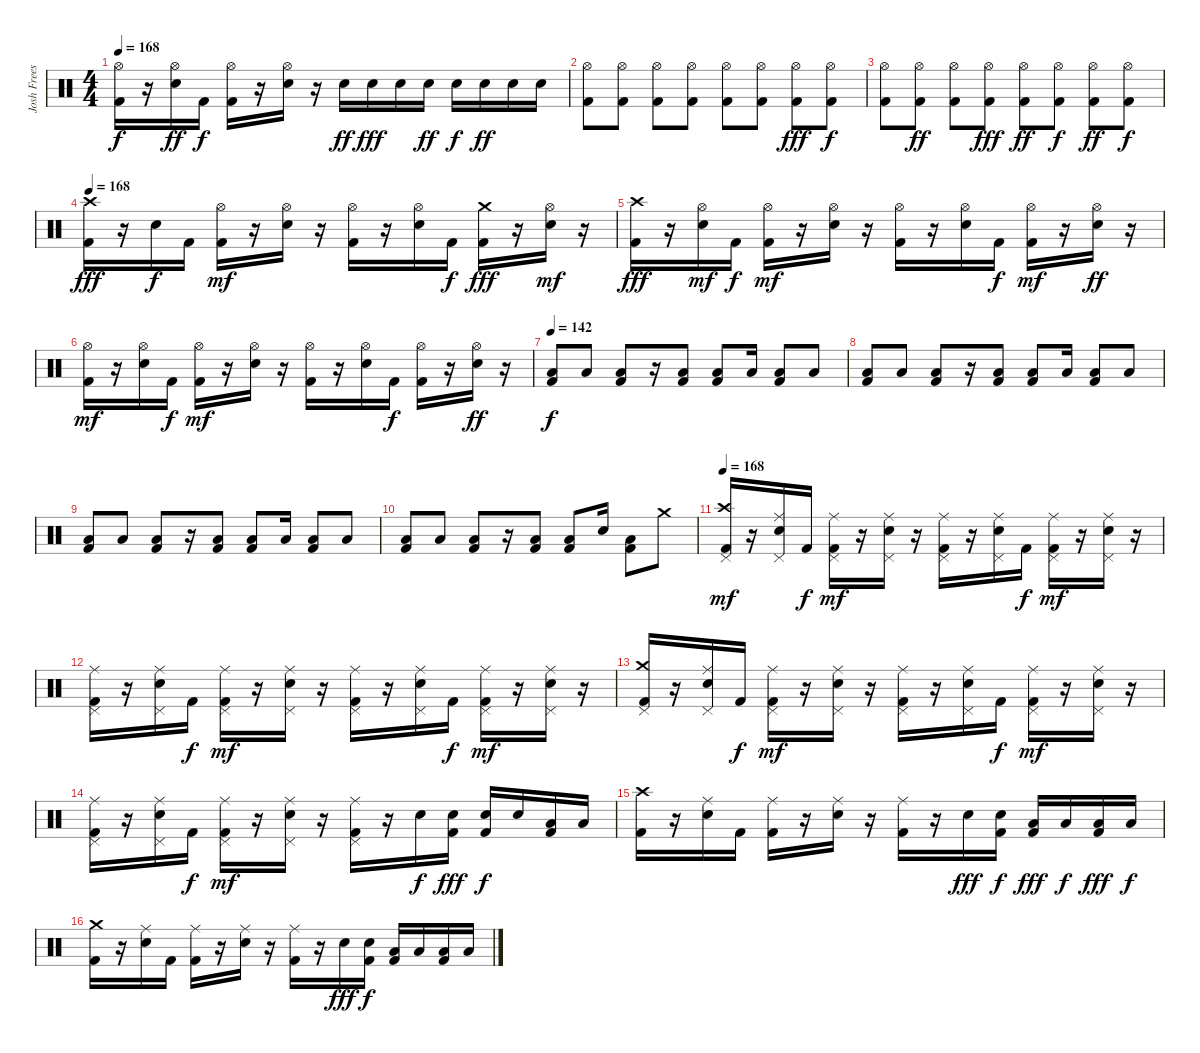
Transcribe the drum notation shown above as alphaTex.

\track ("Josh Freese" "Josh Frees") {instrument percussion}
\staff {score}
\articulation defaults
\ts (4 4)
\tempo 168
\clef neutral
\ks c
("Hi-Hat (open)" "Kick (hit) 2").16{dy f} r.16 ("Hi-Hat (open)" "Electric Snare (hit)").16{dy ff} "Kick (hit) 2".16{dy f} ("Hi-Hat (open)" "Kick (hit) 2").16 r.16 ("Hi-Hat (open)" "Electric Snare (hit)").16 r.16 "Electric Snare (hit)".16{dy ff} "Electric Snare (hit)".16{dy fff} "Electric Snare (hit)".16 "Electric Snare (hit)".16{dy ff} "Electric Snare (hit)".16{dy f} "Electric Snare (hit)".16{dy ff} "Electric Snare (hit)".16 "Electric Snare (hit)".16 |
("Hi-Hat (open)" "Kick (hit) 2").8 ("Hi-Hat (open)" "Kick (hit) 2").8 ("Hi-Hat (open)" "Kick (hit) 2").8 ("Hi-Hat (open)" "Kick (hit) 2").8 ("Hi-Hat (open)" "Kick (hit) 2").8 ("Hi-Hat (open)" "Kick (hit) 2").8 ("Hi-Hat (open)" "Kick (hit) 2").8{dy fff} ("Hi-Hat (open)" "Kick (hit) 2").8{dy f} |
("Hi-Hat (open)" "Kick (hit) 2").8 ("Hi-Hat (open)" "Kick (hit) 2").8{dy ff} ("Hi-Hat (open)" "Kick (hit) 2").8 ("Hi-Hat (open)" "Kick (hit) 2").8{dy fff} ("Hi-Hat (open)" "Kick (hit) 2").8{dy ff} ("Hi-Hat (open)" "Kick (hit) 2").8{dy f} ("Hi-Hat (open)" "Kick (hit) 2").8{dy ff} ("Hi-Hat (open)" "Kick (hit) 2").8{dy f} |
\tempo 168
("Crash high (hit)" "Kick (hit) 2").16{dy fff} r.16 "Electric Snare (hit)".16{dy f} "Kick (hit) 2".16 ("Hi-Hat (open)" "Kick (hit) 2").16{dy mf} r.16 ("Hi-Hat (open)" "Electric Snare (hit)").16 r.16 ("Hi-Hat (open)" "Kick (hit) 2").16 r.16 ("Hi-Hat (open)" "Electric Snare (hit)").16 "Kick (hit) 2".16{dy f} ("Crash medium (hit)" "Kick (hit) 2").16{dy fff} r.16 ("Hi-Hat (open)" "Electric Snare (hit)").16{dy mf} r.16 |
("Crash high (hit)" "Kick (hit) 2").16{dy fff} r.16 ("Hi-Hat (open)" "Electric Snare (hit)").16{dy mf} "Kick (hit) 2".16{dy f} ("Hi-Hat (open)" "Kick (hit) 2").16{dy mf} r.16 ("Hi-Hat (open)" "Electric Snare (hit)").16 r.16 ("Hi-Hat (open)" "Kick (hit) 2").16 r.16 ("Hi-Hat (open)" "Electric Snare (hit)").16 "Kick (hit) 2".16{dy f} ("Hi-Hat (open)" "Kick (hit) 2").16{dy mf} r.16 ("Hi-Hat (open)" "Electric Snare (hit)").16{dy ff} r.16 |
("Hi-Hat (open)" "Kick (hit) 2").16{dy mf} r.16 ("Hi-Hat (open)" "Electric Snare (hit)").16 "Kick (hit) 2".16{dy f} ("Hi-Hat (open)" "Kick (hit) 2").16{dy mf} r.16 ("Hi-Hat (open)" "Electric Snare (hit)").16 r.16 ("Hi-Hat (open)" "Kick (hit) 2").16 r.16 ("Hi-Hat (open)" "Electric Snare (hit)").16 "Kick (hit) 2".16{dy f} ("Hi-Hat (open)" "Kick (hit) 2").16 r.16 ("Hi-Hat (open)" "Electric Snare (hit)").16{dy ff} r.16 |
\tempo 145
\tempo 142
("Low Tom (hit)" "Kick (hit) 2").8{dy f} "Low Tom (hit)".8 ("Low Floor Tom (hit)" "Kick (hit) 2").8 r.16 ("Low Tom (hit)" "Kick (hit) 2").8 ("Low Tom (hit)" "Kick (hit) 2").8 "Low Tom (hit)".16 ("Low Floor Tom (hit)" "Kick (hit) 2").8 "Low Floor Tom (hit)".8 |
("Low Tom (hit)" "Kick (hit) 2").8 "Low Tom (hit)".8 ("Low Floor Tom (hit)" "Kick (hit) 2").8 r.16 ("Low Tom (hit)" "Kick (hit) 2").8 ("Low Tom (hit)" "Kick (hit) 2").8 "Low Tom (hit)".16 ("Low Floor Tom (hit)" "Kick (hit) 2").8 "Low Floor Tom (hit)".8 |
("Low Tom (hit)" "Kick (hit) 2").8 "Low Tom (hit)".8 ("Low Floor Tom (hit)" "Kick (hit) 2").8 r.16 ("Low Tom (hit)" "Kick (hit) 2").8 ("Low Tom (hit)" "Kick (hit) 2").8 "Low Tom (hit)".16 ("Low Floor Tom (hit)" "Kick (hit) 2").8 "Low Floor Tom (hit)".8 |
("Low Tom (hit)" "Kick (hit) 2").8 "Low Tom (hit)".8 ("Low Floor Tom (hit)" "Kick (hit) 2").8 r.16 ("Low Tom (hit)" "Kick (hit) 2").8 ("Low Tom (hit)" "Kick (hit) 2").8 "Electric Snare (hit)".16 ("Low Floor Tom (hit)" "Kick (hit) 2").8 "Crash medium (hit)".8 |
\tempo 168
("Crash high (hit)" "Kick (hit) 2" "Pedal Hi-Hat (hit)").16{dy mf} r.16 ("Ride (middle)" "Electric Snare (hit)" "Pedal Hi-Hat (hit)").16 "Kick (hit) 2".16{dy f} ("Ride (middle)" "Kick (hit) 2" "Pedal Hi-Hat (hit)").16{dy mf} r.16 ("Ride (middle)" "Electric Snare (hit)" "Pedal Hi-Hat (hit)").16 r.16 ("Ride (middle)" "Kick (hit) 2" "Pedal Hi-Hat (hit)").16 r.16 ("Ride (middle)" "Electric Snare (hit)" "Pedal Hi-Hat (hit)").16 "Kick (hit) 2".16{dy f} ("Ride (middle)" "Kick (hit) 2" "Pedal Hi-Hat (hit)").16{dy mf} r.16 ("Ride (middle)" "Electric Snare (hit)" "Pedal Hi-Hat (hit)").16 r.16 |
("Ride (middle)" "Kick (hit) 2" "Pedal Hi-Hat (hit)").16 r.16 ("Ride (middle)" "Electric Snare (hit)" "Pedal Hi-Hat (hit)").16 "Kick (hit) 2".16{dy f} ("Ride (middle)" "Kick (hit) 2" "Pedal Hi-Hat (hit)").16{dy mf} r.16 ("Ride (middle)" "Electric Snare (hit)" "Pedal Hi-Hat (hit)").16 r.16 ("Ride (middle)" "Kick (hit) 2" "Pedal Hi-Hat (hit)").16 r.16 ("Ride (middle)" "Electric Snare (hit)" "Pedal Hi-Hat (hit)").16 "Kick (hit) 2".16{dy f} ("Ride (middle)" "Kick (hit) 2" "Pedal Hi-Hat (hit)").16{dy mf} r.16 ("Ride (middle)" "Electric Snare (hit)" "Pedal Hi-Hat (hit)").16 r.16 |
("Crash medium (hit)" "Kick (hit) 2" "Pedal Hi-Hat (hit)").16 r.16 ("Ride (middle)" "Electric Snare (hit)" "Pedal Hi-Hat (hit)").16 "Kick (hit) 2".16{dy f} ("Ride (middle)" "Kick (hit) 2" "Pedal Hi-Hat (hit)").16{dy mf} r.16 ("Ride (middle)" "Electric Snare (hit)" "Pedal Hi-Hat (hit)").16 r.16 ("Ride (middle)" "Kick (hit) 2" "Pedal Hi-Hat (hit)").16 r.16 ("Ride (middle)" "Electric Snare (hit)" "Pedal Hi-Hat (hit)").16 "Kick (hit) 2".16{dy f} ("Ride (middle)" "Kick (hit) 2" "Pedal Hi-Hat (hit)").16{dy mf} r.16 ("Ride (middle)" "Electric Snare (hit)" "Pedal Hi-Hat (hit)").16 r.16 |
("Ride (middle)" "Kick (hit) 2" "Pedal Hi-Hat (hit)").16 r.16 ("Ride (middle)" "Electric Snare (hit)" "Pedal Hi-Hat (hit)").16 "Kick (hit) 2".16{dy f} ("Ride (middle)" "Kick (hit) 2" "Pedal Hi-Hat (hit)").16{dy mf} r.16 ("Ride (middle)" "Electric Snare (hit)" "Pedal Hi-Hat (hit)").16 r.16 ("Ride (middle)" "Kick (hit) 2" "Pedal Hi-Hat (hit)").16 r.16 "Electric Snare (hit)".16{dy f} ("Electric Snare (hit)" "Kick (hit) 2").16{dy fff} ("Electric Snare (hit)" "Kick (hit) 2").16{dy f} "Electric Snare (hit)".16 ("Low Tom (hit)" "Kick (hit) 2").16 "Low Tom (hit)".16 |
("Crash high (hit)" "Kick (hit) 2").16 r.16 ("Ride (middle)" "Electric Snare (hit)").16 "Kick (hit) 2".16 ("Ride (middle)" "Kick (hit) 2").16 r.16 ("Ride (middle)" "Electric Snare (hit)").16 r.16 ("Ride (middle)" "Kick (hit) 2").16 r.16 "Electric Snare (hit)".16{dy fff} ("Electric Snare (hit)" "Kick (hit) 2").16{dy f} ("Low Tom (hit)" "Kick (hit) 2").16{dy fff} "Low Tom (hit)".16{dy f} ("Low Floor Tom (hit)" "Kick (hit) 2").16{dy fff} "Low Floor Tom (hit)".16{dy f} |
("Crash medium (hit)" "Kick (hit) 2").16 r.16 ("Ride (middle)" "Electric Snare (hit)").16 "Kick (hit) 2".16 ("Ride (middle)" "Kick (hit) 2").16 r.16 ("Ride (middle)" "Electric Snare (hit)").16 r.16 ("Ride (middle)" "Kick (hit) 2").16 r.16 "Electric Snare (hit)".16{dy fff} ("Electric Snare (hit)" "Kick (hit) 2").16{dy f} ("Low Tom (hit)" "Kick (hit) 2").16 "Low Tom (hit)".16 ("Low Floor Tom (hit)" "Kick (hit) 2").16 "Low Floor Tom (hit)".16
